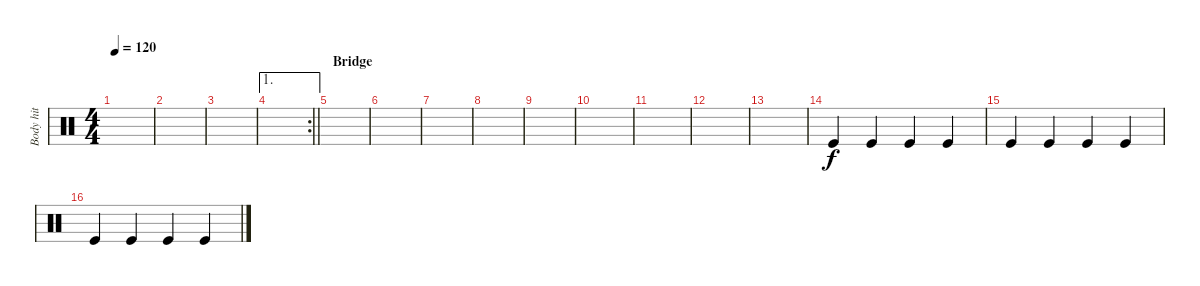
\track ("Body hit" "Body hit") {instrument percussion}
\staff {score}
\articulation defaults
\ts (4 4)
\tempo 120
\clef neutral
\ks c
|
|
|
\ae 1
\rc 2
\barLineRight lightlight
|
\section ("" "Bridge")
|
|
|
|
|
|
|
|
|
"Kick (hit)".4 "Kick (hit)".4 "Kick (hit)".4 "Kick (hit)".4 |
"Kick (hit)".4 "Kick (hit)".4 "Kick (hit)".4 "Kick (hit)".4 |
"Kick (hit)".4 "Kick (hit)".4 "Kick (hit)".4 "Kick (hit)".4
